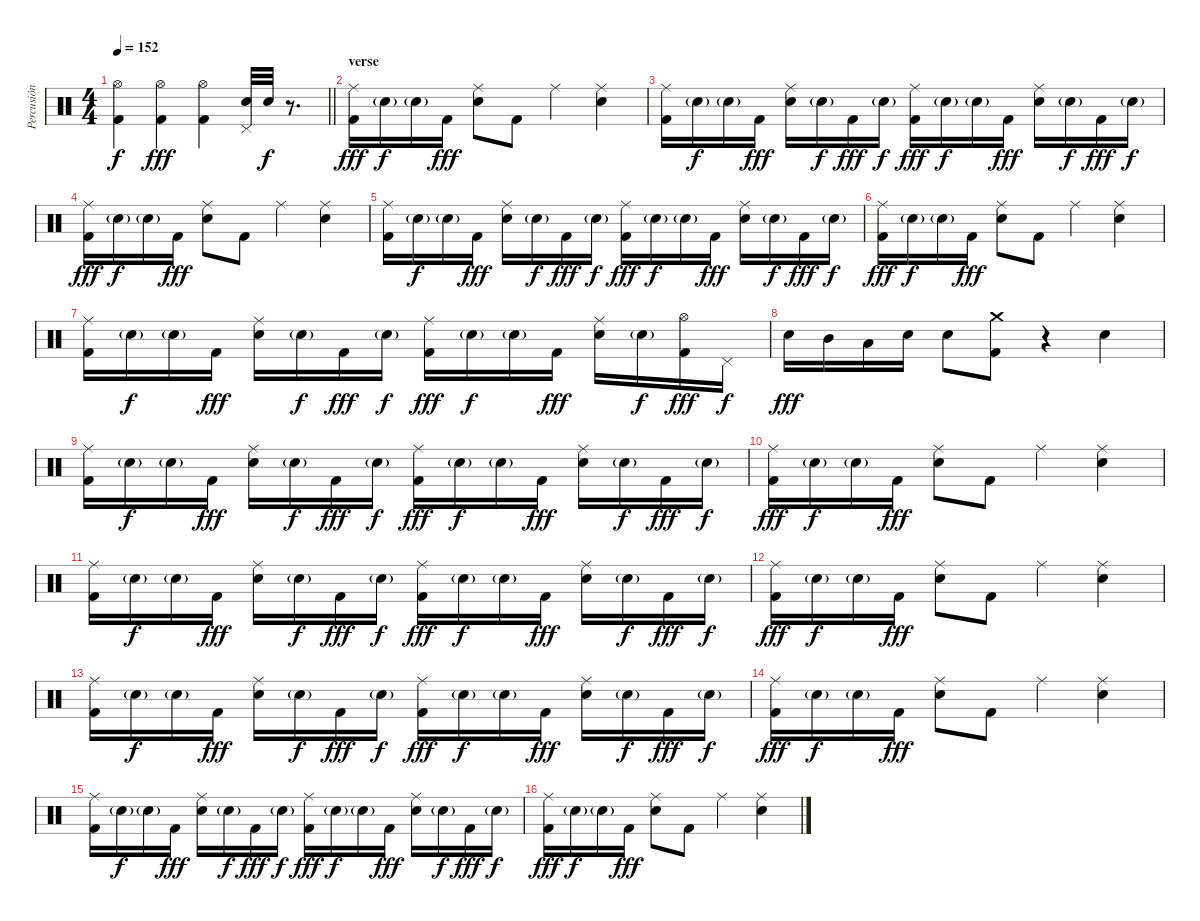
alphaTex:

\track ("Percusión" "Percusión") {instrument percussion}
\staff {score}
\articulation defaults
\ts (4 4)
\tempo 152
\clef neutral
\barLineRight lightlight
\ks c
("Hi-Hat (open)" "Kick (hit) 2").4{dy f} ("Hi-Hat (open)" "Kick (hit) 2").4{dy fff} ("Hi-Hat (open)" "Kick (hit) 2").4 ("Pedal Hi-Hat (hit)" "Snare (hit) 2").32 "Snare (hit) 2".32{dy f} r.8{d} |
\section ("" "verse")
("Ride (middle)" "Kick (hit) 2").16{dy fff} "Snare (hit) 2"{g}.16{dy f} "Snare (hit) 2"{g}.16 "Kick (hit) 2".16{dy fff} ("Ride (middle)" "Snare (hit) 2").8 "Kick (hit) 2".8 "Ride (middle)".4 ("Ride (middle)" "Snare (hit) 2").4 |
("Ride (middle)" "Kick (hit) 2").16 "Snare (hit) 2"{g}.16{dy f} "Snare (hit) 2"{g}.16 "Kick (hit) 2".16{dy fff} ("Ride (middle)" "Snare (hit) 2").16 "Snare (hit) 2"{g}.16{dy f} "Kick (hit) 2".16{dy fff} "Snare (hit) 2"{g}.16{dy f} ("Ride (middle)" "Kick (hit) 2").16{dy fff} "Snare (hit) 2"{g}.16{dy f} "Snare (hit) 2"{g}.16 "Kick (hit) 2".16{dy fff} ("Ride (middle)" "Snare (hit) 2").16 "Snare (hit) 2"{g}.16{dy f} "Kick (hit) 2".16{dy fff} "Snare (hit) 2"{g}.16{dy f} |
("Ride (middle)" "Kick (hit) 2").16{dy fff} "Snare (hit) 2"{g}.16{dy f} "Snare (hit) 2"{g}.16 "Kick (hit) 2".16{dy fff} ("Ride (middle)" "Snare (hit) 2").8 "Kick (hit) 2".8 "Ride (middle)".4 ("Ride (middle)" "Snare (hit) 2").4 |
("Ride (middle)" "Kick (hit) 2").16 "Snare (hit) 2"{g}.16{dy f} "Snare (hit) 2"{g}.16 "Kick (hit) 2".16{dy fff} ("Ride (middle)" "Snare (hit) 2").16 "Snare (hit) 2"{g}.16{dy f} "Kick (hit) 2".16{dy fff} "Snare (hit) 2"{g}.16{dy f} ("Ride (middle)" "Kick (hit) 2").16{dy fff} "Snare (hit) 2"{g}.16{dy f} "Snare (hit) 2"{g}.16 "Kick (hit) 2".16{dy fff} ("Ride (middle)" "Snare (hit) 2").16 "Snare (hit) 2"{g}.16{dy f} "Kick (hit) 2".16{dy fff} "Snare (hit) 2"{g}.16{dy f} |
("Ride (middle)" "Kick (hit) 2").16{dy fff} "Snare (hit) 2"{g}.16{dy f} "Snare (hit) 2"{g}.16 "Kick (hit) 2".16{dy fff} ("Ride (middle)" "Snare (hit) 2").8 "Kick (hit) 2".8 "Ride (middle)".4 ("Ride (middle)" "Snare (hit) 2").4 |
("Ride (middle)" "Kick (hit) 2").16 "Snare (hit) 2"{g}.16{dy f} "Snare (hit) 2"{g}.16 "Kick (hit) 2".16{dy fff} ("Ride (middle)" "Snare (hit) 2").16 "Snare (hit) 2"{g}.16{dy f} "Kick (hit) 2".16{dy fff} "Snare (hit) 2"{g}.16{dy f} ("Ride (middle)" "Kick (hit) 2").16{dy fff} "Snare (hit) 2"{g}.16{dy f} "Snare (hit) 2"{g}.16 "Kick (hit) 2".16{dy fff} ("Ride (middle)" "Snare (hit) 2").16 "Snare (hit) 2"{g}.16{dy f} ("Hi-Hat (open)" "Kick (hit) 2").16{dy fff} "Pedal Hi-Hat (hit)".16{dy f} |
"Snare (hit) 2".16{dy fff} "Mid Tom (hit)".16 "Low Tom (hit)".16 "Snare (hit) 2".16 "Snare (hit) 2".8 ("Crash medium (hit)" "Kick (hit) 2").8 r.4 "Snare (hit) 2".4 |
("Ride (middle)" "Kick (hit) 2").16 "Snare (hit) 2"{g}.16{dy f} "Snare (hit) 2"{g}.16 "Kick (hit) 2".16{dy fff} ("Ride (middle)" "Snare (hit) 2").16 "Snare (hit) 2"{g}.16{dy f} "Kick (hit) 2".16{dy fff} "Snare (hit) 2"{g}.16{dy f} ("Ride (middle)" "Kick (hit) 2").16{dy fff} "Snare (hit) 2"{g}.16{dy f} "Snare (hit) 2"{g}.16 "Kick (hit) 2".16{dy fff} ("Ride (middle)" "Snare (hit) 2").16 "Snare (hit) 2"{g}.16{dy f} "Kick (hit) 2".16{dy fff} "Snare (hit) 2"{g}.16{dy f} |
("Ride (middle)" "Kick (hit) 2").16{dy fff} "Snare (hit) 2"{g}.16{dy f} "Snare (hit) 2"{g}.16 "Kick (hit) 2".16{dy fff} ("Ride (middle)" "Snare (hit) 2").8 "Kick (hit) 2".8 "Ride (middle)".4 ("Ride (middle)" "Snare (hit) 2").4 |
("Ride (middle)" "Kick (hit) 2").16 "Snare (hit) 2"{g}.16{dy f} "Snare (hit) 2"{g}.16 "Kick (hit) 2".16{dy fff} ("Ride (middle)" "Snare (hit) 2").16 "Snare (hit) 2"{g}.16{dy f} "Kick (hit) 2".16{dy fff} "Snare (hit) 2"{g}.16{dy f} ("Ride (middle)" "Kick (hit) 2").16{dy fff} "Snare (hit) 2"{g}.16{dy f} "Snare (hit) 2"{g}.16 "Kick (hit) 2".16{dy fff} ("Ride (middle)" "Snare (hit) 2").16 "Snare (hit) 2"{g}.16{dy f} "Kick (hit) 2".16{dy fff} "Snare (hit) 2"{g}.16{dy f} |
("Ride (middle)" "Kick (hit) 2").16{dy fff} "Snare (hit) 2"{g}.16{dy f} "Snare (hit) 2"{g}.16 "Kick (hit) 2".16{dy fff} ("Ride (middle)" "Snare (hit) 2").8 "Kick (hit) 2".8 "Ride (middle)".4 ("Ride (middle)" "Snare (hit) 2").4 |
("Ride (middle)" "Kick (hit) 2").16 "Snare (hit) 2"{g}.16{dy f} "Snare (hit) 2"{g}.16 "Kick (hit) 2".16{dy fff} ("Ride (middle)" "Snare (hit) 2").16 "Snare (hit) 2"{g}.16{dy f} "Kick (hit) 2".16{dy fff} "Snare (hit) 2"{g}.16{dy f} ("Ride (middle)" "Kick (hit) 2").16{dy fff} "Snare (hit) 2"{g}.16{dy f} "Snare (hit) 2"{g}.16 "Kick (hit) 2".16{dy fff} ("Ride (middle)" "Snare (hit) 2").16 "Snare (hit) 2"{g}.16{dy f} "Kick (hit) 2".16{dy fff} "Snare (hit) 2"{g}.16{dy f} |
("Ride (middle)" "Kick (hit) 2").16{dy fff} "Snare (hit) 2"{g}.16{dy f} "Snare (hit) 2"{g}.16 "Kick (hit) 2".16{dy fff} ("Ride (middle)" "Snare (hit) 2").8 "Kick (hit) 2".8 "Ride (middle)".4 ("Ride (middle)" "Snare (hit) 2").4 |
("Ride (middle)" "Kick (hit) 2").16 "Snare (hit) 2"{g}.16{dy f} "Snare (hit) 2"{g}.16 "Kick (hit) 2".16{dy fff} ("Ride (middle)" "Snare (hit) 2").16 "Snare (hit) 2"{g}.16{dy f} "Kick (hit) 2".16{dy fff} "Snare (hit) 2"{g}.16{dy f} ("Ride (middle)" "Kick (hit) 2").16{dy fff} "Snare (hit) 2"{g}.16{dy f} "Snare (hit) 2"{g}.16 "Kick (hit) 2".16{dy fff} ("Ride (middle)" "Snare (hit) 2").16 "Snare (hit) 2"{g}.16{dy f} "Kick (hit) 2".16{dy fff} "Snare (hit) 2"{g}.16{dy f} |
("Ride (middle)" "Kick (hit) 2").16{dy fff} "Snare (hit) 2"{g}.16{dy f} "Snare (hit) 2"{g}.16 "Kick (hit) 2".16{dy fff} ("Ride (middle)" "Snare (hit) 2").8 "Kick (hit) 2".8 "Ride (middle)".4 ("Ride (middle)" "Snare (hit) 2").4
